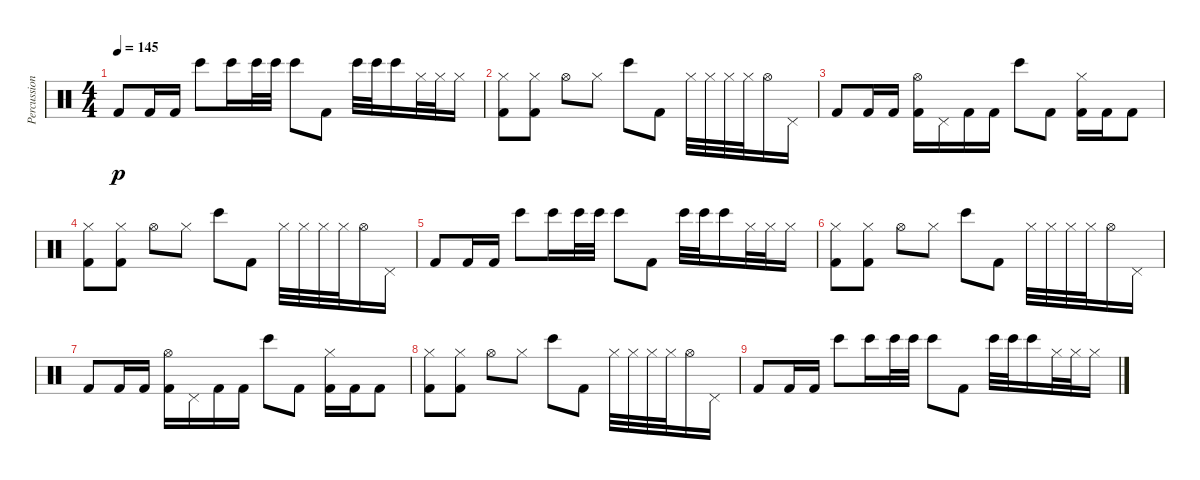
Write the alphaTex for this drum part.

\track ("Percussion" "Percussion") {instrument percussion}
\staff {score}
\articulation defaults
\ts (4 4)
\tempo 145
\clef neutral
\ks c "Kick (hit) 2".8{dy p} "Kick (hit) 2".16 "Kick (hit) 2".16 "Bongo High (hit)".8 "Bongo High (hit)".16 "Bongo High (hit)".32 "Bongo High (hit)".32 "Bongo High (hit)".8 "Kick (hit) 2".8 "Bongo High (hit)".32 "Bongo High (hit)".32 "Bongo High (hit)".16 "Hi-Hat (closed)".32 "Hi-Hat (closed)".32 "Hi-Hat (closed)".16
|
("Hi-Hat (closed)" "Kick (hit) 2").8 ("Hi-Hat (closed)" "Kick (hit) 2").8 "Hi-Hat (open)".8 "Hi-Hat (closed)".8 "Bongo High (hit)".8 "Kick (hit) 2".8 "Hi-Hat (closed)".32 "Hi-Hat (closed)".32 "Hi-Hat (closed)".32 "Hi-Hat (closed)".32 "Hi-Hat (open)".16 "Pedal Hi-Hat (hit)".16 |
"Kick (hit) 2".8 "Kick (hit) 2".16 "Kick (hit) 2".16 ("Hi-Hat (open)" "Kick (hit) 2").16 "Pedal Hi-Hat (hit)".16 "Kick (hit) 2".16 "Kick (hit) 2".16 "Bongo High (hit)".8 "Kick (hit) 2".8 ("Hi-Hat (closed)" "Kick (hit) 2").16 "Kick (hit) 2".16 "Kick (hit) 2".8 |
("Hi-Hat (closed)" "Kick (hit) 2").8 ("Hi-Hat (closed)" "Kick (hit) 2").8 "Hi-Hat (open)".8 "Hi-Hat (closed)".8 "Bongo High (hit)".8 "Kick (hit) 2".8 "Hi-Hat (closed)".32 "Hi-Hat (closed)".32 "Hi-Hat (closed)".32 "Hi-Hat (closed)".32 "Hi-Hat (open)".16 "Pedal Hi-Hat (hit)".16 |
"Kick (hit) 2".8 "Kick (hit) 2".16 "Kick (hit) 2".16 "Bongo High (hit)".8 "Bongo High (hit)".16 "Bongo High (hit)".32 "Bongo High (hit)".32 "Bongo High (hit)".8 "Kick (hit) 2".8 "Bongo High (hit)".32 "Bongo High (hit)".32 "Bongo High (hit)".16 "Hi-Hat (closed)".32 "Hi-Hat (closed)".32 "Hi-Hat (closed)".16 |
("Hi-Hat (closed)" "Kick (hit) 2").8 ("Hi-Hat (closed)" "Kick (hit) 2").8 "Hi-Hat (open)".8 "Hi-Hat (closed)".8 "Bongo High (hit)".8 "Kick (hit) 2".8 "Hi-Hat (closed)".32 "Hi-Hat (closed)".32 "Hi-Hat (closed)".32 "Hi-Hat (closed)".32 "Hi-Hat (open)".16 "Pedal Hi-Hat (hit)".16 |
"Kick (hit) 2".8 "Kick (hit) 2".16 "Kick (hit) 2".16 ("Hi-Hat (open)" "Kick (hit) 2").16 "Pedal Hi-Hat (hit)".16 "Kick (hit) 2".16 "Kick (hit) 2".16 "Bongo High (hit)".8 "Kick (hit) 2".8 ("Hi-Hat (closed)" "Kick (hit) 2").16 "Kick (hit) 2".16 "Kick (hit) 2".8 |
("Hi-Hat (closed)" "Kick (hit) 2").8 ("Hi-Hat (closed)" "Kick (hit) 2").8 "Hi-Hat (open)".8 "Hi-Hat (closed)".8 "Bongo High (hit)".8 "Kick (hit) 2".8 "Hi-Hat (closed)".32 "Hi-Hat (closed)".32 "Hi-Hat (closed)".32 "Hi-Hat (closed)".32 "Hi-Hat (open)".16 "Pedal Hi-Hat (hit)".16 |
"Kick (hit) 2".8 "Kick (hit) 2".16 "Kick (hit) 2".16 "Bongo High (hit)".8 "Bongo High (hit)".16 "Bongo High (hit)".32 "Bongo High (hit)".32 "Bongo High (hit)".8 "Kick (hit) 2".8 "Bongo High (hit)".32 "Bongo High (hit)".32 "Bongo High (hit)".16 "Hi-Hat (closed)".32 "Hi-Hat (closed)".32 "Hi-Hat (closed)".16
